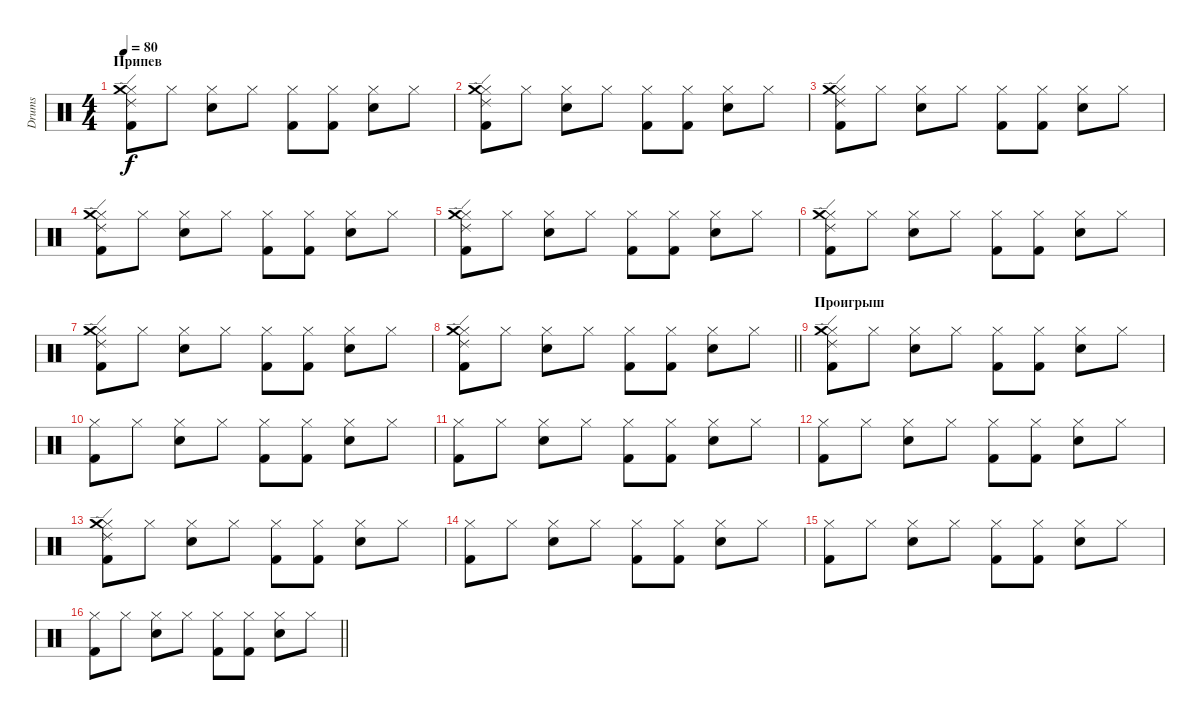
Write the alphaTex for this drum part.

\track ("Drums" "Drums") {instrument percussion}
\staff {score}
\articulation defaults
\ts (4 4)
\section ("" "Припев")
\tempo 80
\clef neutral
\ks c
("Hi-Hat (closed)" "Kick (hit) 2" "Crash medium (hit)" "Ride (edge) 2").8{dy f} "Hi-Hat (closed)".8 ("Hi-Hat (closed)" "Snare (hit) 2").8 "Hi-Hat (closed)".8 ("Hi-Hat (closed)" "Kick (hit) 2").8 ("Hi-Hat (closed)" "Kick (hit) 2").8 ("Hi-Hat (closed)" "Snare (hit) 2").8 "Hi-Hat (closed)".8 |
("Hi-Hat (closed)" "Kick (hit) 2" "Crash medium (hit)" "Ride (edge) 2").8 "Hi-Hat (closed)".8 ("Hi-Hat (closed)" "Snare (hit) 2").8 "Hi-Hat (closed)".8 ("Hi-Hat (closed)" "Kick (hit) 2").8 ("Hi-Hat (closed)" "Kick (hit) 2").8 ("Hi-Hat (closed)" "Snare (hit) 2").8 "Hi-Hat (closed)".8 |
("Hi-Hat (closed)" "Kick (hit) 2" "Crash medium (hit)" "Ride (edge) 2").8 "Hi-Hat (closed)".8 ("Hi-Hat (closed)" "Snare (hit) 2").8 "Hi-Hat (closed)".8 ("Hi-Hat (closed)" "Kick (hit) 2").8 ("Hi-Hat (closed)" "Kick (hit) 2").8 ("Hi-Hat (closed)" "Snare (hit) 2").8 "Hi-Hat (closed)".8 |
("Hi-Hat (closed)" "Kick (hit) 2" "Crash medium (hit)" "Ride (edge) 2").8 "Hi-Hat (closed)".8 ("Hi-Hat (closed)" "Snare (hit) 2").8 "Hi-Hat (closed)".8 ("Hi-Hat (closed)" "Kick (hit) 2").8 ("Hi-Hat (closed)" "Kick (hit) 2").8 ("Hi-Hat (closed)" "Snare (hit) 2").8 "Hi-Hat (closed)".8 |
("Hi-Hat (closed)" "Kick (hit) 2" "Crash medium (hit)" "Ride (edge) 2").8 "Hi-Hat (closed)".8 ("Hi-Hat (closed)" "Snare (hit) 2").8 "Hi-Hat (closed)".8 ("Hi-Hat (closed)" "Kick (hit) 2").8 ("Hi-Hat (closed)" "Kick (hit) 2").8 ("Hi-Hat (closed)" "Snare (hit) 2").8 "Hi-Hat (closed)".8 |
("Hi-Hat (closed)" "Kick (hit) 2" "Crash medium (hit)" "Ride (edge) 2").8 "Hi-Hat (closed)".8 ("Hi-Hat (closed)" "Snare (hit) 2").8 "Hi-Hat (closed)".8 ("Hi-Hat (closed)" "Kick (hit) 2").8 ("Hi-Hat (closed)" "Kick (hit) 2").8 ("Hi-Hat (closed)" "Snare (hit) 2").8 "Hi-Hat (closed)".8 |
("Hi-Hat (closed)" "Kick (hit) 2" "Crash medium (hit)" "Ride (edge) 2").8 "Hi-Hat (closed)".8 ("Hi-Hat (closed)" "Snare (hit) 2").8 "Hi-Hat (closed)".8 ("Hi-Hat (closed)" "Kick (hit) 2").8 ("Hi-Hat (closed)" "Kick (hit) 2").8 ("Hi-Hat (closed)" "Snare (hit) 2").8 "Hi-Hat (closed)".8 |
\barLineRight lightlight
("Hi-Hat (closed)" "Kick (hit) 2" "Crash medium (hit)" "Ride (edge) 2").8 "Hi-Hat (closed)".8 ("Hi-Hat (closed)" "Snare (hit) 2").8 "Hi-Hat (closed)".8 ("Hi-Hat (closed)" "Kick (hit) 2").8 ("Hi-Hat (closed)" "Kick (hit) 2").8 ("Hi-Hat (closed)" "Snare (hit) 2").8 "Hi-Hat (closed)".8 |
\section ("" "Проигрыш")
("Hi-Hat (closed)" "Kick (hit) 2" "Crash medium (hit)" "Ride (edge) 2").8 "Hi-Hat (closed)".8 ("Hi-Hat (closed)" "Snare (hit) 2").8 "Hi-Hat (closed)".8 ("Hi-Hat (closed)" "Kick (hit) 2").8 ("Hi-Hat (closed)" "Kick (hit) 2").8 ("Hi-Hat (closed)" "Snare (hit) 2").8 "Hi-Hat (closed)".8 |
("Hi-Hat (closed)" "Kick (hit) 2").8 "Hi-Hat (closed)".8 ("Hi-Hat (closed)" "Snare (hit) 2").8 "Hi-Hat (closed)".8 ("Hi-Hat (closed)" "Kick (hit) 2").8 ("Hi-Hat (closed)" "Kick (hit) 2").8 ("Hi-Hat (closed)" "Snare (hit) 2").8 "Hi-Hat (closed)".8 |
("Hi-Hat (closed)" "Kick (hit) 2").8 "Hi-Hat (closed)".8 ("Hi-Hat (closed)" "Snare (hit) 2").8 "Hi-Hat (closed)".8 ("Hi-Hat (closed)" "Kick (hit) 2").8 ("Hi-Hat (closed)" "Kick (hit) 2").8 ("Hi-Hat (closed)" "Snare (hit) 2").8 "Hi-Hat (closed)".8 |
("Hi-Hat (closed)" "Kick (hit) 2").8 "Hi-Hat (closed)".8 ("Hi-Hat (closed)" "Snare (hit) 2").8 "Hi-Hat (closed)".8 ("Hi-Hat (closed)" "Kick (hit) 2").8 ("Hi-Hat (closed)" "Kick (hit) 2").8 ("Hi-Hat (closed)" "Snare (hit) 2").8 "Hi-Hat (closed)".8 |
("Hi-Hat (closed)" "Kick (hit) 2" "Crash medium (hit)" "Ride (edge) 2").8 "Hi-Hat (closed)".8 ("Hi-Hat (closed)" "Snare (hit) 2").8 "Hi-Hat (closed)".8 ("Hi-Hat (closed)" "Kick (hit) 2").8 ("Hi-Hat (closed)" "Kick (hit) 2").8 ("Hi-Hat (closed)" "Snare (hit) 2").8 "Hi-Hat (closed)".8 |
("Hi-Hat (closed)" "Kick (hit) 2").8 "Hi-Hat (closed)".8 ("Hi-Hat (closed)" "Snare (hit) 2").8 "Hi-Hat (closed)".8 ("Hi-Hat (closed)" "Kick (hit) 2").8 ("Hi-Hat (closed)" "Kick (hit) 2").8 ("Hi-Hat (closed)" "Snare (hit) 2").8 "Hi-Hat (closed)".8 |
("Hi-Hat (closed)" "Kick (hit) 2").8 "Hi-Hat (closed)".8 ("Hi-Hat (closed)" "Snare (hit) 2").8 "Hi-Hat (closed)".8 ("Hi-Hat (closed)" "Kick (hit) 2").8 ("Hi-Hat (closed)" "Kick (hit) 2").8 ("Hi-Hat (closed)" "Snare (hit) 2").8 "Hi-Hat (closed)".8 |
\barLineRight lightlight
("Hi-Hat (closed)" "Kick (hit) 2").8 "Hi-Hat (closed)".8 ("Hi-Hat (closed)" "Snare (hit) 2").8 "Hi-Hat (closed)".8 ("Hi-Hat (closed)" "Kick (hit) 2").8 ("Hi-Hat (closed)" "Kick (hit) 2").8 ("Hi-Hat (closed)" "Snare (hit) 2").8 "Hi-Hat (closed)".8
